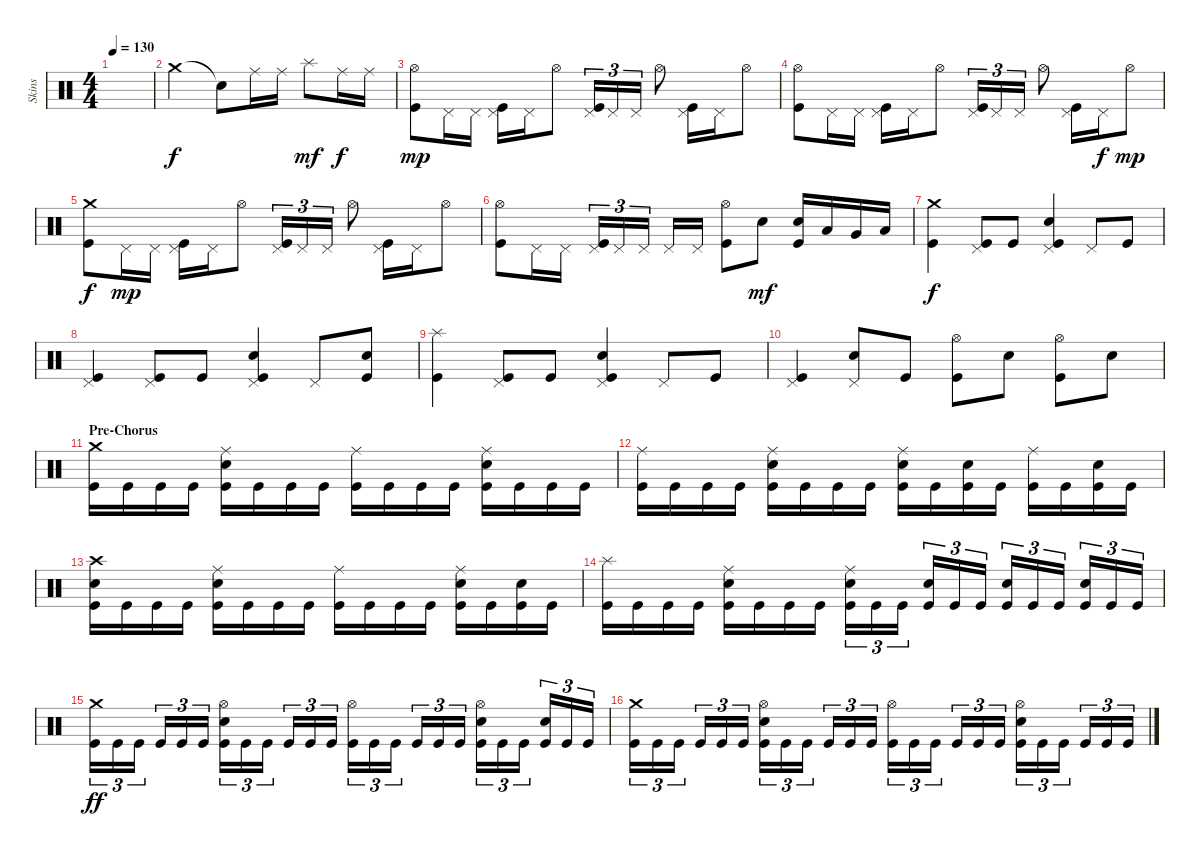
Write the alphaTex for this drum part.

\track ("Skins" "Skins") {instrument percussion}
\staff {score}
\articulation defaults
\ts (4 4)
\tempo 130
\clef neutral
\ks c
|
"Crash medium (hit)".2 "Snare (hit)"{t}.8 "Ride (middle)".16 "Ride (middle)".16 "Splash (hit)".8{dy mf} "Ride (middle)".16{dy f} "Ride (middle)".16 |
("Hi-Hat (open)" "Kick (hit)").8{dy mp} "Pedal Hi-Hat (hit)".16 "Pedal Hi-Hat (hit)".16 ("Pedal Hi-Hat (hit)" "Kick (hit)").16 "Pedal Hi-Hat (hit)".16 "Hi-Hat (open)".8 ("Pedal Hi-Hat (hit)" "Kick (hit)").16{tu (3 2)} "Pedal Hi-Hat (hit)".16{tu (3 2)} "Pedal Hi-Hat (hit)".16{tu (3 2)} "Hi-Hat (open)".8 ("Pedal Hi-Hat (hit)" "Kick (hit)").16 "Pedal Hi-Hat (hit)".16 "Hi-Hat (open)".8 |
("Hi-Hat (open)" "Kick (hit)").8 "Pedal Hi-Hat (hit)".16 "Pedal Hi-Hat (hit)".16 ("Pedal Hi-Hat (hit)" "Kick (hit)").16 "Pedal Hi-Hat (hit)".16 "Hi-Hat (open)".8 ("Pedal Hi-Hat (hit)" "Kick (hit)").16{tu (3 2)} "Pedal Hi-Hat (hit)".16{tu (3 2)} "Pedal Hi-Hat (hit)".16{tu (3 2)} "Hi-Hat (open)".8 ("Pedal Hi-Hat (hit)" "Kick (hit)").16 "Pedal Hi-Hat (hit)".16{dy f} "Hi-Hat (open)".8{dy mp} |
("Crash medium (hit)" "Kick (hit)").8{dy f} "Pedal Hi-Hat (hit)".16{dy mp} "Pedal Hi-Hat (hit)".16 ("Pedal Hi-Hat (hit)" "Kick (hit)").16 "Pedal Hi-Hat (hit)".16 "Hi-Hat (open)".8 ("Pedal Hi-Hat (hit)" "Kick (hit)").16{tu (3 2)} "Pedal Hi-Hat (hit)".16{tu (3 2)} "Pedal Hi-Hat (hit)".16{tu (3 2)} "Hi-Hat (open)".8 ("Pedal Hi-Hat (hit)" "Kick (hit)").16 "Pedal Hi-Hat (hit)".16 "Hi-Hat (open)".8 |
("Hi-Hat (open)" "Kick (hit)").8 "Pedal Hi-Hat (hit)".16 "Pedal Hi-Hat (hit)".16 ("Pedal Hi-Hat (hit)" "Kick (hit)").16{tu (3 2)} "Pedal Hi-Hat (hit)".16{tu (3 2)} "Pedal Hi-Hat (hit)".16{tu (3 2)} "Pedal Hi-Hat (hit)".16 "Pedal Hi-Hat (hit)".16 ("Hi-Hat (open)" "Kick (hit)").8 "Electric Snare (hit)".8{dy mf} ("Electric Snare (hit)" "Kick (hit)").16 "Low Tom (hit)".16 "Very Low Tom (hit)".16 "Low Floor Tom (hit)".16 |
\section ("" "")
("Crash medium (hit)" "Kick (hit)").4{dy f} ("Pedal Hi-Hat (hit)" "Kick (hit)").8 "Kick (hit)".8 ("Pedal Hi-Hat (hit)" "Electric Snare (hit)" "Kick (hit)").4 "Pedal Hi-Hat (hit)".8 "Kick (hit)".8 |
("Pedal Hi-Hat (hit)" "Kick (hit)").4 ("Pedal Hi-Hat (hit)" "Kick (hit)").8 "Kick (hit)".8 ("Pedal Hi-Hat (hit)" "Electric Snare (hit)" "Kick (hit)").4 "Pedal Hi-Hat (hit)".8 ("Electric Snare (hit)" "Kick (hit)").8 |
("Splash (hit)" "Kick (hit)").4 ("Pedal Hi-Hat (hit)" "Kick (hit)").8 "Kick (hit)".8 ("Pedal Hi-Hat (hit)" "Electric Snare (hit)" "Kick (hit)").4 "Pedal Hi-Hat (hit)".8 "Kick (hit)".8 |
("Pedal Hi-Hat (hit)" "Kick (hit)").4 ("Pedal Hi-Hat (hit)" "Electric Snare (hit)").8 "Kick (hit)".8 ("Hi-Hat (open)" "Kick (hit)").8 "Electric Snare (hit)".8 ("Hi-Hat (open)" "Kick (hit)").8 "Electric Snare (hit)".8 |
\section ("" "Pre-Chorus")
("Crash medium (hit)" "Kick (hit)").16 "Kick (hit)".16 "Kick (hit)".16 "Kick (hit)".16 ("Ride (middle)" "Electric Snare (hit)" "Kick (hit)").16 "Kick (hit)".16 "Kick (hit)".16 "Kick (hit)".16 ("Ride (middle)" "Kick (hit)").16 "Kick (hit)".16 "Kick (hit)".16 "Kick (hit)".16 ("Ride (middle)" "Electric Snare (hit)" "Kick (hit)").16 "Kick (hit)".16 "Kick (hit)".16 "Kick (hit)".16 |
("Ride (middle)" "Kick (hit)").16 "Kick (hit)".16 "Kick (hit)".16 "Kick (hit)".16 ("Ride (middle)" "Electric Snare (hit)" "Kick (hit)").16 "Kick (hit)".16 "Kick (hit)".16 "Kick (hit)".16 ("Ride (middle)" "Electric Snare (hit)" "Kick (hit)").16 "Kick (hit)".16 ("Electric Snare (hit)" "Kick (hit)").16 "Kick (hit)".16 ("Ride (middle)" "Kick (hit)").16 "Kick (hit)".16 ("Electric Snare (hit)" "Kick (hit)").16 "Kick (hit)".16 |
("Crash high (hit)" "Electric Snare (hit)" "Kick (hit)").16 "Kick (hit)".16 "Kick (hit)".16 "Kick (hit)".16 ("Ride (middle)" "Electric Snare (hit)" "Kick (hit)").16 "Kick (hit)".16 "Kick (hit)".16 "Kick (hit)".16 ("Ride (middle)" "Kick (hit)").16 "Kick (hit)".16 "Kick (hit)".16 "Kick (hit)".16 ("Ride (middle)" "Electric Snare (hit)" "Kick (hit)").16 "Kick (hit)".16 ("Electric Snare (hit)" "Kick (hit)").16 "Kick (hit)".16 |
("Splash (hit)" "Kick (hit)").16 "Kick (hit)".16 "Kick (hit)".16 "Kick (hit)".16 ("Ride (middle)" "Electric Snare (hit)" "Kick (hit)").16 "Kick (hit)".16 "Kick (hit)".16 "Kick (hit)".16 ("Ride (middle)" "Electric Snare (hit)" "Kick (hit)").16{tu (3 2)} "Kick (hit)".16{tu (3 2)} "Kick (hit)".16{tu (3 2)} ("Electric Snare (hit)" "Kick (hit)").16{tu (3 2)} "Kick (hit)".16{tu (3 2)} "Kick (hit)".16{tu (3 2)} ("Electric Snare (hit)" "Kick (hit)").16{tu (3 2)} "Kick (hit)".16{tu (3 2)} "Kick (hit)".16{tu (3 2)} ("Electric Snare (hit)" "Kick (hit)").16{tu (3 2)} "Kick (hit)".16{tu (3 2)} "Kick (hit)".16{tu (3 2)} |
("Crash medium (hit)" "Kick (hit)").16{tu (3 2) dy ff} "Kick (hit)".16{tu (3 2)} "Kick (hit)".16{tu (3 2)} "Kick (hit)".16{tu (3 2)} "Kick (hit)".16{tu (3 2)} "Kick (hit)".16{tu (3 2)} ("Hi-Hat (open)" "Electric Snare (hit)" "Kick (hit)").16{tu (3 2)} "Kick (hit)".16{tu (3 2)} "Kick (hit)".16{tu (3 2)} "Kick (hit)".16{tu (3 2)} "Kick (hit)".16{tu (3 2)} "Kick (hit)".16{tu (3 2)} ("Hi-Hat (open)" "Kick (hit)").16{tu (3 2)} "Kick (hit)".16{tu (3 2)} "Kick (hit)".16{tu (3 2)} "Kick (hit)".16{tu (3 2)} "Kick (hit)".16{tu (3 2)} "Kick (hit)".16{tu (3 2)} ("Hi-Hat (open)" "Electric Snare (hit)" "Kick (hit)").16{tu (3 2)} "Kick (hit)".16{tu (3 2)} "Kick (hit)".16{tu (3 2)} ("Electric Snare (hit)" "Kick (hit)").16{tu (3 2)} "Kick (hit)".16{tu (3 2)} "Kick (hit)".16{tu (3 2)} |
("Crash medium (hit)" "Kick (hit)").16{tu (3 2)} "Kick (hit)".16{tu (3 2)} "Kick (hit)".16{tu (3 2)} "Kick (hit)".16{tu (3 2)} "Kick (hit)".16{tu (3 2)} "Kick (hit)".16{tu (3 2)} ("Hi-Hat (open)" "Electric Snare (hit)" "Kick (hit)").16{tu (3 2)} "Kick (hit)".16{tu (3 2)} "Kick (hit)".16{tu (3 2)} "Kick (hit)".16{tu (3 2)} "Kick (hit)".16{tu (3 2)} "Kick (hit)".16{tu (3 2)} ("Hi-Hat (open)" "Kick (hit)").16{tu (3 2)} "Kick (hit)".16{tu (3 2)} "Kick (hit)".16{tu (3 2)} "Kick (hit)".16{tu (3 2)} "Kick (hit)".16{tu (3 2)} "Kick (hit)".16{tu (3 2)} ("Hi-Hat (open)" "Electric Snare (hit)" "Kick (hit)").16{tu (3 2)} "Kick (hit)".16{tu (3 2)} "Kick (hit)".16{tu (3 2)} "Kick (hit)".16{tu (3 2)} "Kick (hit)".16{tu (3 2)} "Kick (hit)".16{tu (3 2)}
